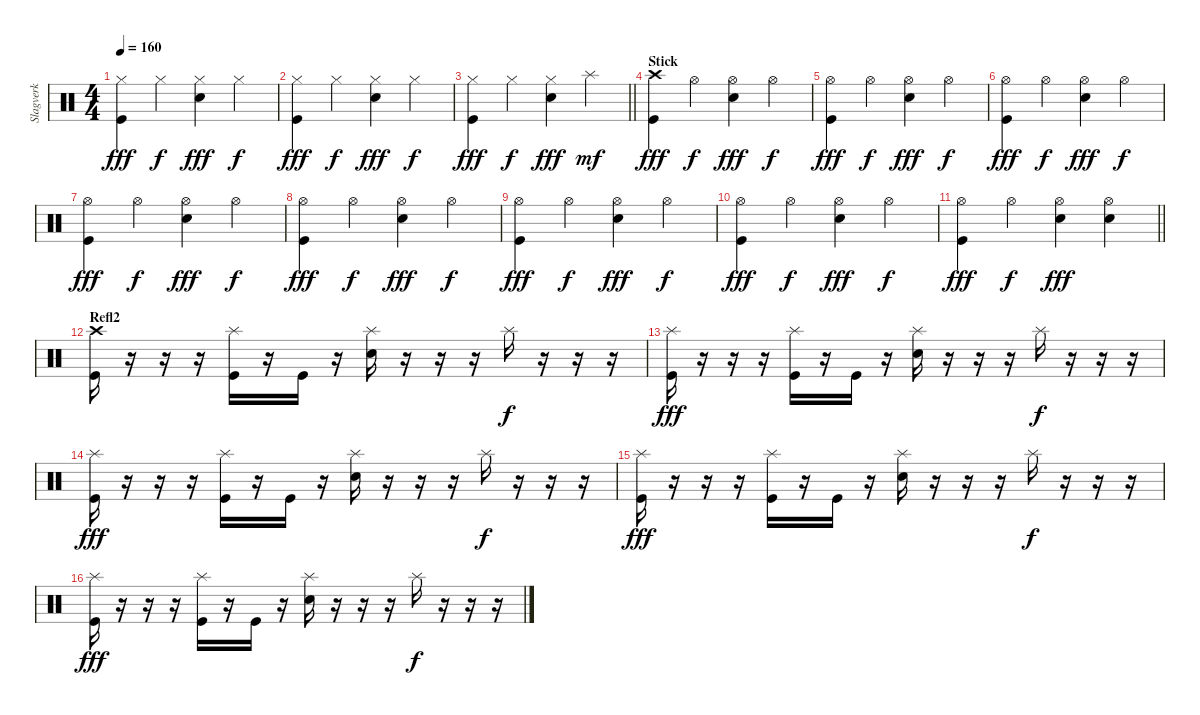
\track ("Slagverk" "Slagverk") {instrument percussion}
\staff {score}
\articulation defaults
\ts (4 4)
\tempo 160
\clef neutral
\ks c
("Hi-Hat (closed)" "Kick (hit)").4{dy fff} "Hi-Hat (closed)".4{dy f} ("Hi-Hat (closed)" "Electric Snare (hit)").4{dy fff} "Hi-Hat (closed)".4{dy f} |
("Hi-Hat (closed)" "Kick (hit)").4{dy fff} "Hi-Hat (closed)".4{dy f} ("Hi-Hat (closed)" "Electric Snare (hit)").4{dy fff} "Hi-Hat (closed)".4{dy f} |
\barLineRight lightlight
("Hi-Hat (closed)" "Kick (hit)").4{dy fff} "Hi-Hat (closed)".4{dy f} ("Hi-Hat (closed)" "Electric Snare (hit)").4{dy fff} "Splash (hit)".4{dy mf} |
\section ("" "Stick")
("Crash high (hit)" "Kick (hit)").4{dy fff} "Hi-Hat (open)".4{dy f} ("Hi-Hat (open)" "Electric Snare (hit)").4{dy fff} "Hi-Hat (open)".4{dy f} |
("Hi-Hat (open)" "Kick (hit)").4{dy fff} "Hi-Hat (open)".4{dy f} ("Hi-Hat (open)" "Electric Snare (hit)").4{dy fff} "Hi-Hat (open)".4{dy f} |
("Hi-Hat (open)" "Kick (hit)").4{dy fff} "Hi-Hat (open)".4{dy f} ("Hi-Hat (open)" "Electric Snare (hit)").4{dy fff} "Hi-Hat (open)".4{dy f} |
("Hi-Hat (open)" "Kick (hit)").4{dy fff} "Hi-Hat (open)".4{dy f} ("Hi-Hat (open)" "Electric Snare (hit)").4{dy fff} "Hi-Hat (open)".4{dy f} |
("Hi-Hat (open)" "Kick (hit)").4{dy fff} "Hi-Hat (open)".4{dy f} ("Hi-Hat (open)" "Electric Snare (hit)").4{dy fff} "Hi-Hat (open)".4{dy f} |
("Hi-Hat (open)" "Kick (hit)").4{dy fff} "Hi-Hat (open)".4{dy f} ("Hi-Hat (open)" "Electric Snare (hit)").4{dy fff} "Hi-Hat (open)".4{dy f} |
("Hi-Hat (open)" "Kick (hit)").4{dy fff} "Hi-Hat (open)".4{dy f} ("Hi-Hat (open)" "Electric Snare (hit)").4{dy fff} "Hi-Hat (open)".4{dy f} |
\barLineRight lightlight
("Hi-Hat (open)" "Kick (hit)").4{dy fff} "Hi-Hat (open)".4{dy f} ("Hi-Hat (open)" "Electric Snare (hit)").4{dy fff} ("Hi-Hat (open)" "Electric Snare (hit)").4 |
\section ("" "Refl2")
("Crash high (hit)" "Kick (hit)").16 r.16 r.16 r.16 ("Splash (hit)" "Kick (hit)").16 r.16 "Kick (hit)".16 r.16 ("Splash (hit)" "Electric Snare (hit)").16 r.16 r.16 r.16 "Splash (hit)".16{dy f} r.16 r.16 r.16 |
("Splash (hit)" "Kick (hit)").16{dy fff} r.16 r.16 r.16 ("Splash (hit)" "Kick (hit)").16 r.16 "Kick (hit)".16 r.16 ("Splash (hit)" "Electric Snare (hit)").16 r.16 r.16 r.16 "Splash (hit)".16{dy f} r.16 r.16 r.16 |
("Splash (hit)" "Kick (hit)").16{dy fff} r.16 r.16 r.16 ("Splash (hit)" "Kick (hit)").16 r.16 "Kick (hit)".16 r.16 ("Splash (hit)" "Electric Snare (hit)").16 r.16 r.16 r.16 "Splash (hit)".16{dy f} r.16 r.16 r.16 |
("Splash (hit)" "Kick (hit)").16{dy fff} r.16 r.16 r.16 ("Splash (hit)" "Kick (hit)").16 r.16 "Kick (hit)".16 r.16 ("Splash (hit)" "Electric Snare (hit)").16 r.16 r.16 r.16 "Splash (hit)".16{dy f} r.16 r.16 r.16 |
("Splash (hit)" "Kick (hit)").16{dy fff} r.16 r.16 r.16 ("Splash (hit)" "Kick (hit)").16 r.16 "Kick (hit)".16 r.16 ("Splash (hit)" "Electric Snare (hit)").16 r.16 r.16 r.16 "Splash (hit)".16{dy f} r.16 r.16 r.16
